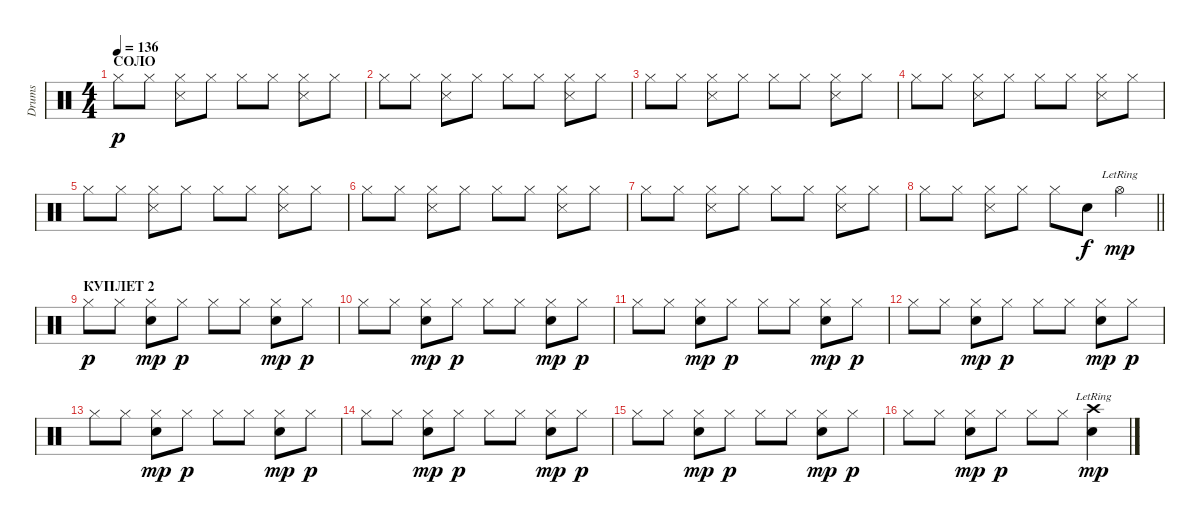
\track ("Drums" "Drums") {instrument percussion}
\staff {score}
\articulation defaults
\ts (4 4)
\section ("" "СОЛО")
\tempo 136
\clef neutral
\ks c "Hi-Hat (closed)".8{dy p} "Hi-Hat (closed)".8
("Hi-Hat (closed)" "Snare (side stick) 3").8 "Hi-Hat (closed)".8 "Hi-Hat (closed)".8 "Hi-Hat (closed)".8 ("Hi-Hat (closed)" "Snare (side stick) 3").8 "Hi-Hat (closed)".8 |
"Hi-Hat (closed)".8 "Hi-Hat (closed)".8 ("Hi-Hat (closed)" "Snare (side stick) 3").8 "Hi-Hat (closed)".8 "Hi-Hat (closed)".8 "Hi-Hat (closed)".8 ("Hi-Hat (closed)" "Snare (side stick) 3").8 "Hi-Hat (closed)".8 |
"Hi-Hat (closed)".8 "Hi-Hat (closed)".8 ("Hi-Hat (closed)" "Snare (side stick) 3").8 "Hi-Hat (closed)".8 "Hi-Hat (closed)".8 "Hi-Hat (closed)".8 ("Hi-Hat (closed)" "Snare (side stick) 3").8 "Hi-Hat (closed)".8 |
"Hi-Hat (closed)".8 "Hi-Hat (closed)".8 ("Hi-Hat (closed)" "Snare (side stick) 3").8 "Hi-Hat (closed)".8 "Hi-Hat (closed)".8 "Hi-Hat (closed)".8 ("Hi-Hat (closed)" "Snare (side stick) 3").8 "Hi-Hat (closed)".8 |
"Hi-Hat (closed)".8 "Hi-Hat (closed)".8 ("Hi-Hat (closed)" "Snare (side stick) 3").8 "Hi-Hat (closed)".8 "Hi-Hat (closed)".8 "Hi-Hat (closed)".8 ("Hi-Hat (closed)" "Snare (side stick) 3").8 "Hi-Hat (closed)".8 |
"Hi-Hat (closed)".8 "Hi-Hat (closed)".8 ("Hi-Hat (closed)" "Snare (side stick) 3").8 "Hi-Hat (closed)".8 "Hi-Hat (closed)".8 "Hi-Hat (closed)".8 ("Hi-Hat (closed)" "Snare (side stick) 3").8 "Hi-Hat (closed)".8 |
"Hi-Hat (closed)".8 "Hi-Hat (closed)".8 ("Hi-Hat (closed)" "Snare (side stick) 3").8 "Hi-Hat (closed)".8 "Hi-Hat (closed)".8 "Hi-Hat (closed)".8 ("Hi-Hat (closed)" "Snare (side stick) 3").8 "Hi-Hat (closed)".8 |
\barLineRight lightlight "Hi-Hat (closed)".8 "Hi-Hat (closed)".8
("Hi-Hat (closed)" "Snare (side stick) 3").8 "Hi-Hat (closed)".8 "Hi-Hat (closed)".8 "Electric Snare (hit)".8{dy f} "Hi-Hat (open)"{lr}.4{dy mp} |
\section ("" "КУПЛЕТ 2")
"Hi-Hat (closed)".8{dy p} "Hi-Hat (closed)".8 ("Hi-Hat (closed)" "Electric Snare (hit)").8{dy mp} "Hi-Hat (closed)".8{dy p} "Hi-Hat (closed)".8 "Hi-Hat (closed)".8 ("Hi-Hat (closed)" "Electric Snare (hit)").8{dy mp} "Hi-Hat (closed)".8{dy p} |
"Hi-Hat (closed)".8 "Hi-Hat (closed)".8 ("Hi-Hat (closed)" "Electric Snare (hit)").8{dy mp} "Hi-Hat (closed)".8{dy p} "Hi-Hat (closed)".8 "Hi-Hat (closed)".8 ("Hi-Hat (closed)" "Electric Snare (hit)").8{dy mp} "Hi-Hat (closed)".8{dy p} |
"Hi-Hat (closed)".8 "Hi-Hat (closed)".8 ("Hi-Hat (closed)" "Electric Snare (hit)").8{dy mp} "Hi-Hat (closed)".8{dy p} "Hi-Hat (closed)".8 "Hi-Hat (closed)".8 ("Hi-Hat (closed)" "Electric Snare (hit)").8{dy mp} "Hi-Hat (closed)".8{dy p} |
"Hi-Hat (closed)".8 "Hi-Hat (closed)".8 ("Hi-Hat (closed)" "Electric Snare (hit)").8{dy mp} "Hi-Hat (closed)".8{dy p} "Hi-Hat (closed)".8 "Hi-Hat (closed)".8 ("Hi-Hat (closed)" "Electric Snare (hit)").8{dy mp} "Hi-Hat (closed)".8{dy p} |
"Hi-Hat (closed)".8 "Hi-Hat (closed)".8 ("Hi-Hat (closed)" "Electric Snare (hit)").8{dy mp} "Hi-Hat (closed)".8{dy p} "Hi-Hat (closed)".8 "Hi-Hat (closed)".8 ("Hi-Hat (closed)" "Electric Snare (hit)").8{dy mp} "Hi-Hat (closed)".8{dy p} |
"Hi-Hat (closed)".8 "Hi-Hat (closed)".8 ("Hi-Hat (closed)" "Electric Snare (hit)").8{dy mp} "Hi-Hat (closed)".8{dy p} "Hi-Hat (closed)".8 "Hi-Hat (closed)".8 ("Hi-Hat (closed)" "Electric Snare (hit)").8{dy mp} "Hi-Hat (closed)".8{dy p} |
"Hi-Hat (closed)".8 "Hi-Hat (closed)".8 ("Hi-Hat (closed)" "Electric Snare (hit)").8{dy mp} "Hi-Hat (closed)".8{dy p} "Hi-Hat (closed)".8 "Hi-Hat (closed)".8 ("Hi-Hat (closed)" "Electric Snare (hit)").8{dy mp} "Hi-Hat (closed)".8{dy p} |
"Hi-Hat (closed)".8 "Hi-Hat (closed)".8 ("Hi-Hat (closed)" "Electric Snare (hit)").8{dy mp} "Hi-Hat (closed)".8{dy p} "Hi-Hat (closed)".8 "Hi-Hat (closed)".8 ("Crash high (hit)"{lr} "Electric Snare (hit)").4{dy mp}
